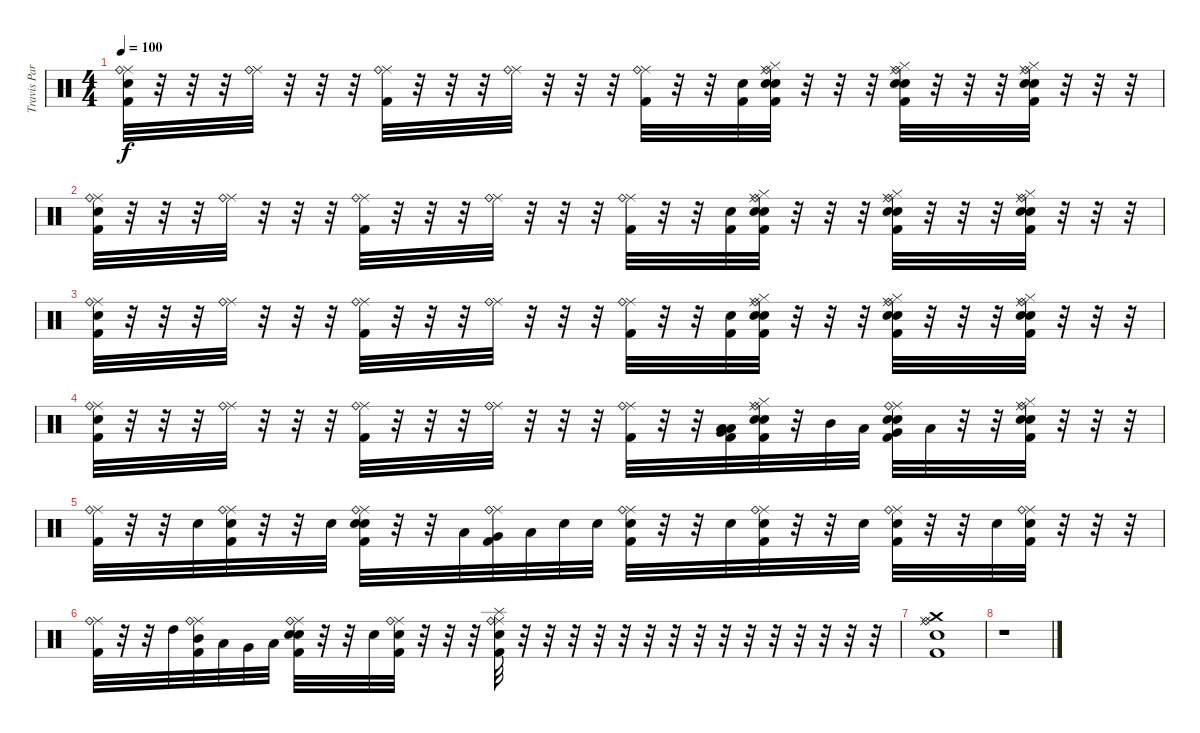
\track ("Travis Parker(batterie)" "Travis Par") {instrument percussion}
\staff {score}
\articulation defaults
\ts (4 4)
\tempo 100
\clef neutral
\ks c
("Ride (middle)" "Ride (bell)" "Electric Snare (hit)" "Kick (hit) 2").32{dy f} r.32 r.32 r.32 ("Ride (middle)" "Ride (bell)").32 r.32 r.32 r.32 ("Ride (middle)" "Ride (bell)" "Kick (hit) 2").32 r.32 r.32 r.32 ("Ride (middle)" "Ride (bell)").32 r.32 r.32 r.32 ("Ride (middle)" "Ride (bell)" "Kick (hit) 2").32 r.32 r.32 ("Snare (hit) 2" "Kick (hit) 2").32 ("Ride (middle)" "Ride (bell)" "Hi-Hat (closed)" "Electric Snare (hit)" "Snare (hit) 2" "Kick (hit) 2").32 r.32 r.32 r.32 ("Ride (middle)" "Ride (bell)" "Hi-Hat (closed)" "Electric Snare (hit)" "Snare (hit) 2" "Kick (hit) 2").32 r.32 r.32 r.32 ("Ride (middle)" "Ride (bell)" "Hi-Hat (closed)" "Electric Snare (hit)" "Snare (hit) 2" "Kick (hit) 2").32 r.32 r.32 r.32 |
("Ride (middle)" "Ride (bell)" "Electric Snare (hit)" "Kick (hit) 2").32 r.32 r.32 r.32 ("Ride (middle)" "Ride (bell)").32 r.32 r.32 r.32 ("Ride (middle)" "Ride (bell)" "Kick (hit) 2").32 r.32 r.32 r.32 ("Ride (middle)" "Ride (bell)").32 r.32 r.32 r.32 ("Ride (middle)" "Ride (bell)" "Kick (hit) 2").32 r.32 r.32 ("Snare (hit) 2" "Kick (hit) 2").32 ("Ride (middle)" "Ride (bell)" "Hi-Hat (closed)" "Electric Snare (hit)" "Snare (hit) 2" "Kick (hit) 2").32 r.32 r.32 r.32 ("Ride (middle)" "Ride (bell)" "Hi-Hat (closed)" "Electric Snare (hit)" "Snare (hit) 2" "Kick (hit) 2").32 r.32 r.32 r.32 ("Ride (middle)" "Ride (bell)" "Hi-Hat (closed)" "Electric Snare (hit)" "Snare (hit) 2" "Kick (hit) 2").32 r.32 r.32 r.32 |
("Ride (middle)" "Ride (bell)" "Electric Snare (hit)" "Kick (hit) 2").32 r.32 r.32 r.32 ("Ride (middle)" "Ride (bell)").32 r.32 r.32 r.32 ("Ride (middle)" "Ride (bell)" "Kick (hit) 2").32 r.32 r.32 r.32 ("Ride (middle)" "Ride (bell)").32 r.32 r.32 r.32 ("Ride (middle)" "Ride (bell)" "Kick (hit) 2").32 r.32 r.32 ("Snare (hit) 2" "Kick (hit) 2").32 ("Ride (middle)" "Ride (bell)" "Hi-Hat (closed)" "Electric Snare (hit)" "Snare (hit) 2" "Kick (hit) 2").32 r.32 r.32 r.32 ("Ride (middle)" "Ride (bell)" "Hi-Hat (closed)" "Electric Snare (hit)" "Snare (hit) 2" "Kick (hit) 2").32 r.32 r.32 r.32 ("Ride (middle)" "Ride (bell)" "Hi-Hat (closed)" "Electric Snare (hit)" "Snare (hit) 2" "Kick (hit) 2").32 r.32 r.32 r.32 |
("Ride (middle)" "Ride (bell)" "Electric Snare (hit)" "Kick (hit) 2").32 r.32 r.32 r.32 ("Ride (middle)" "Ride (bell)").32 r.32 r.32 r.32 ("Ride (middle)" "Ride (bell)" "Kick (hit) 2").32 r.32 r.32 r.32 ("Ride (middle)" "Ride (bell)").32 r.32 r.32 r.32 ("Ride (middle)" "Ride (bell)" "Kick (hit) 2").32 r.32 r.32 ("Very Low Tom (hit)" "Low Floor Tom (hit)" "Low Tom (hit)" "Kick (hit) 2").32 ("Ride (middle)" "Ride (bell)" "Hi-Hat (closed)" "Electric Snare (hit)" "Snare (hit) 2" "Kick (hit) 2").32 r.32 "Mid Tom (hit)".32 "Low Tom (hit)".32 ("Ride (middle)" "Ride (bell)" "Very Low Tom (hit)" "Electric Snare (hit)" "Snare (hit) 2" "Kick (hit) 2").32 "Low Floor Tom (hit)".32 r.32 r.32 ("Ride (middle)" "Ride (bell)" "Hi-Hat (closed)" "Electric Snare (hit)" "Snare (hit) 2" "Kick (hit) 2").32 r.32 r.32 r.32 |
("Ride (middle)" "Ride (bell)" "Kick (hit) 2").32 r.32 r.32 "Electric Snare (hit)".32 ("Ride (middle)" "Ride (bell)" "Electric Snare (hit)" "Kick (hit) 2").32 r.32 r.32 "Electric Snare (hit)".32 ("Ride (middle)" "Ride (bell)" "Electric Snare (hit)" "Snare (hit) 2" "Kick (hit) 2").32 r.32 r.32 "Low Tom (hit)".32 ("Ride (middle)" "Ride (bell)" "Very Low Tom (hit)" "Kick (hit) 2").32 "Low Floor Tom (hit)".32 "Electric Snare (hit)".32 "Electric Snare (hit)".32 ("Ride (middle)" "Ride (bell)" "Electric Snare (hit)" "Kick (hit) 2").32 r.32 r.32 "Electric Snare (hit)".32 ("Ride (middle)" "Ride (bell)" "Electric Snare (hit)" "Kick (hit) 2").32 r.32 r.32 "Electric Snare (hit)".32 ("Ride (middle)" "Ride (bell)" "Electric Snare (hit)" "Kick (hit) 2").32 r.32 r.32 "Electric Snare (hit)".32 ("Ride (middle)" "Ride (bell)" "Electric Snare (hit)" "Kick (hit) 2").32 r.32 r.32 r.32 |
("Ride (middle)" "Ride (bell)" "Kick (hit) 2").32 r.32 r.32 "High Tom (hit)".32 ("Ride (middle)" "Ride (bell)" "Mid Tom (hit)" "Kick (hit) 2").32 "Low Tom (hit)".32 "Very Low Tom (hit)".32 "Low Floor Tom (hit)".32 ("Ride (middle)" "Ride (bell)" "Electric Snare (hit)" "Snare (hit) 2" "Kick (hit) 2").32 r.32 r.32 "Electric Snare (hit)".32 ("Ride (middle)" "Ride (bell)" "Electric Snare (hit)" "Kick (hit) 2").32 r.32 r.32 r.32 ("Splash (hit)" "Ride (middle)" "Ride (bell)" "Electric Snare (hit)" "Kick (hit) 2").32 r.32 r.32 r.32 r.32 r.32 r.32 r.32 r.32 r.32 r.32 r.32 r.32 r.32 r.32 r.32 |
("Crash medium (hit)" "Ride (middle)" "Ride (bell)" "Snare (hit) 2" "Kick (hit) 2").1 |
r.1
